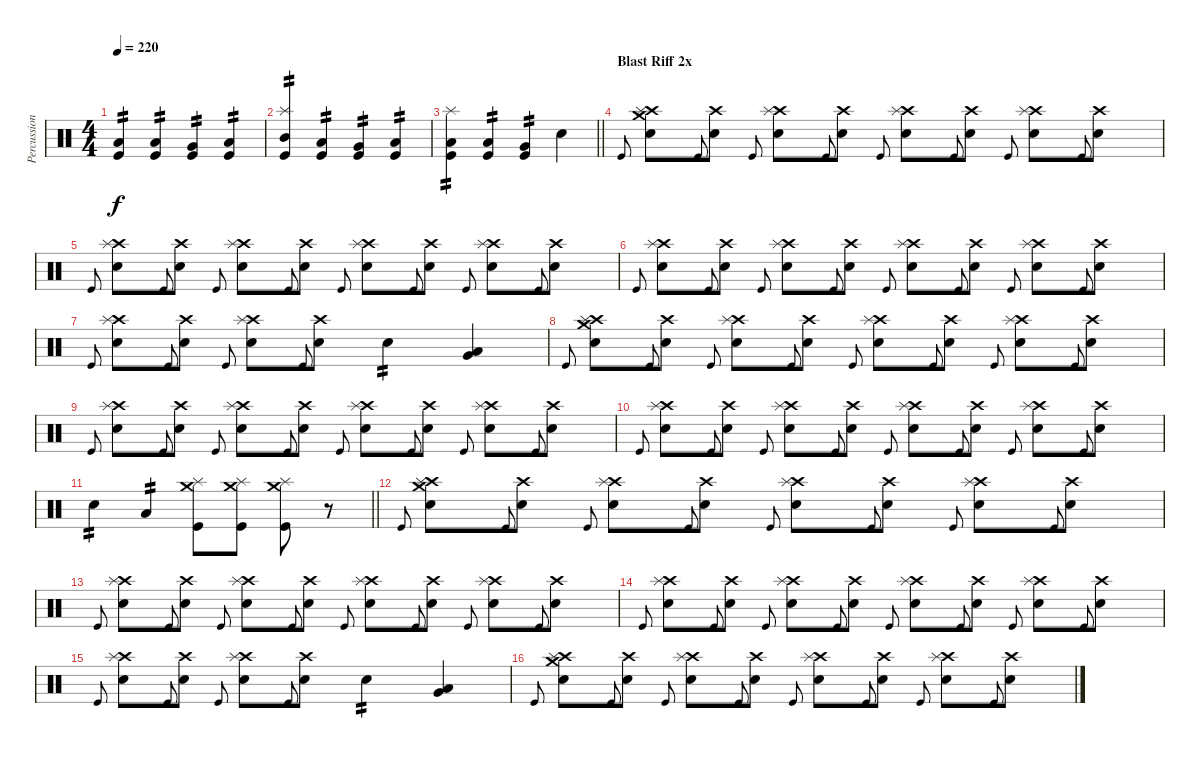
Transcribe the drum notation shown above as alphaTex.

\track ("Percussion" "Percussion") {instrument percussion}
\staff {score}
\articulation defaults
\ts (4 4)
\tempo 220
\clef neutral
\ks c
("Low Tom (hit)" "Kick (hit)").4{tp 2 dy f} ("Low Tom (hit)" "Kick (hit)").4{tp 2} ("Very Low Tom (hit)" "Kick (hit)").4{tp 2} ("Low Floor Tom (hit)" "Kick (hit)").4{tp 2} |
("Splash (hit)" "Mid Tom (hit)" "Kick (hit)").4{tp 2} ("Low Tom (hit)" "Kick (hit)").4{tp 2} ("Very Low Tom (hit)" "Kick (hit)").4{tp 2} ("Low Floor Tom (hit)" "Kick (hit)").4{tp 2} |
\barLineRight lightlight
("Splash (hit)" "Low Tom (hit)" "Kick (hit)").4{tp 2} ("Low Tom (hit)" "Kick (hit)").4{tp 2} ("Very Low Tom (hit)" "Kick (hit)").4{tp 2} "Snare (hit) 2".4 |
\section ("" "Blast Riff 2x")
"Kick (hit)".8{gr onbeat} ("Crash medium (hit)" "Crash high (hit)" "Splash (hit)" "Snare (hit) 2").8 "Kick (hit)".8{gr onbeat} ("Crash high (hit)" "Snare (hit) 2").8 "Kick (hit)".8{gr onbeat} ("Crash high (hit)" "Splash (hit)" "Snare (hit) 2").8 "Kick (hit)".8{gr onbeat} ("Crash high (hit)" "Snare (hit) 2").8 "Kick (hit)".8{gr onbeat} ("Crash high (hit)" "Splash (hit)" "Snare (hit) 2").8 "Kick (hit)".8{gr onbeat} ("Crash high (hit)" "Snare (hit) 2").8 "Kick (hit)".8{gr onbeat} ("Crash high (hit)" "Splash (hit)" "Snare (hit) 2").8 "Kick (hit)".8{gr onbeat} ("Crash high (hit)" "Snare (hit) 2").8 |
"Kick (hit)".8{gr onbeat} ("Crash high (hit)" "Splash (hit)" "Snare (hit) 2").8 "Kick (hit)".8{gr onbeat} ("Crash high (hit)" "Snare (hit) 2").8 "Kick (hit)".8{gr onbeat} ("Crash high (hit)" "Splash (hit)" "Snare (hit) 2").8 "Kick (hit)".8{gr onbeat} ("Crash high (hit)" "Snare (hit) 2").8 "Kick (hit)".8{gr onbeat} ("Crash high (hit)" "Splash (hit)" "Snare (hit) 2").8 "Kick (hit)".8{gr onbeat} ("Crash high (hit)" "Snare (hit) 2").8 "Kick (hit)".8{gr onbeat} ("Crash high (hit)" "Splash (hit)" "Snare (hit) 2").8 "Kick (hit)".8{gr onbeat} ("Crash high (hit)" "Snare (hit) 2").8 |
"Kick (hit)".8{gr onbeat} ("Crash high (hit)" "Splash (hit)" "Snare (hit) 2").8 "Kick (hit)".8{gr onbeat} ("Crash high (hit)" "Snare (hit) 2").8 "Kick (hit)".8{gr onbeat} ("Crash high (hit)" "Splash (hit)" "Snare (hit) 2").8 "Kick (hit)".8{gr onbeat} ("Crash high (hit)" "Snare (hit) 2").8 "Kick (hit)".8{gr onbeat} ("Crash high (hit)" "Splash (hit)" "Snare (hit) 2").8 "Kick (hit)".8{gr onbeat} ("Crash high (hit)" "Snare (hit) 2").8 "Kick (hit)".8{gr onbeat} ("Crash high (hit)" "Splash (hit)" "Snare (hit) 2").8 "Kick (hit)".8{gr onbeat} ("Crash high (hit)" "Snare (hit) 2").8 |
"Kick (hit)".8{gr onbeat} ("Crash high (hit)" "Splash (hit)" "Snare (hit) 2").8 "Kick (hit)".8{gr onbeat} ("Crash high (hit)" "Snare (hit) 2").8 "Kick (hit)".8{gr onbeat} ("Crash high (hit)" "Splash (hit)" "Snare (hit) 2").8 "Kick (hit)".8{gr onbeat} ("Crash high (hit)" "Snare (hit) 2").8 "Snare (hit) 2".4{tp 2} ("Very Low Tom (hit)" "Low Floor Tom (hit)").4 |
"Kick (hit)".8{gr onbeat} ("Crash medium (hit)" "Crash high (hit)" "Splash (hit)" "Snare (hit) 2").8 "Kick (hit)".8{gr onbeat} ("Crash high (hit)" "Snare (hit) 2").8 "Kick (hit)".8{gr onbeat} ("Crash high (hit)" "Splash (hit)" "Snare (hit) 2").8 "Kick (hit)".8{gr onbeat} ("Crash high (hit)" "Snare (hit) 2").8 "Kick (hit)".8{gr onbeat} ("Crash high (hit)" "Splash (hit)" "Snare (hit) 2").8 "Kick (hit)".8{gr onbeat} ("Crash high (hit)" "Snare (hit) 2").8 "Kick (hit)".8{gr onbeat} ("Crash high (hit)" "Splash (hit)" "Snare (hit) 2").8 "Kick (hit)".8{gr onbeat} ("Crash high (hit)" "Snare (hit) 2").8 |
"Kick (hit)".8{gr onbeat} ("Crash high (hit)" "Splash (hit)" "Snare (hit) 2").8 "Kick (hit)".8{gr onbeat} ("Crash high (hit)" "Snare (hit) 2").8 "Kick (hit)".8{gr onbeat} ("Crash high (hit)" "Splash (hit)" "Snare (hit) 2").8 "Kick (hit)".8{gr onbeat} ("Crash high (hit)" "Snare (hit) 2").8 "Kick (hit)".8{gr onbeat} ("Crash high (hit)" "Splash (hit)" "Snare (hit) 2").8 "Kick (hit)".8{gr onbeat} ("Crash high (hit)" "Snare (hit) 2").8 "Kick (hit)".8{gr onbeat} ("Crash high (hit)" "Splash (hit)" "Snare (hit) 2").8 "Kick (hit)".8{gr onbeat} ("Crash high (hit)" "Snare (hit) 2").8 |
"Kick (hit)".8{gr onbeat} ("Crash high (hit)" "Splash (hit)" "Snare (hit) 2").8 "Kick (hit)".8{gr onbeat} ("Crash high (hit)" "Snare (hit) 2").8 "Kick (hit)".8{gr onbeat} ("Crash high (hit)" "Splash (hit)" "Snare (hit) 2").8 "Kick (hit)".8{gr onbeat} ("Crash high (hit)" "Snare (hit) 2").8 "Kick (hit)".8{gr onbeat} ("Crash high (hit)" "Splash (hit)" "Snare (hit) 2").8 "Kick (hit)".8{gr onbeat} ("Crash high (hit)" "Snare (hit) 2").8 "Kick (hit)".8{gr onbeat} ("Crash high (hit)" "Splash (hit)" "Snare (hit) 2").8 "Kick (hit)".8{gr onbeat} ("Crash high (hit)" "Snare (hit) 2").8 |
\barLineRight lightlight "Snare (hit) 2".4{tp 2} "Low Tom (hit)".4{tp 2}
("Splash (hit)" "Crash medium (hit)" "Kick (hit)").8 ("Splash (hit)" "Crash medium (hit)" "Kick (hit)").8 ("Splash (hit)" "Crash medium (hit)" "Kick (hit)").8 r.8 |
"Kick (hit)".8{gr onbeat} ("Crash medium (hit)" "Crash high (hit)" "Splash (hit)" "Snare (hit) 2").8 "Kick (hit)".8{gr onbeat} ("Crash high (hit)" "Snare (hit) 2").8 "Kick (hit)".8{gr onbeat} ("Crash high (hit)" "Splash (hit)" "Snare (hit) 2").8 "Kick (hit)".8{gr onbeat} ("Crash high (hit)" "Snare (hit) 2").8 "Kick (hit)".8{gr onbeat} ("Crash high (hit)" "Splash (hit)" "Snare (hit) 2").8 "Kick (hit)".8{gr onbeat} ("Crash high (hit)" "Snare (hit) 2").8 "Kick (hit)".8{gr onbeat} ("Crash high (hit)" "Splash (hit)" "Snare (hit) 2").8 "Kick (hit)".8{gr onbeat} ("Crash high (hit)" "Snare (hit) 2").8 |
"Kick (hit)".8{gr onbeat} ("Crash high (hit)" "Splash (hit)" "Snare (hit) 2").8 "Kick (hit)".8{gr onbeat} ("Crash high (hit)" "Snare (hit) 2").8 "Kick (hit)".8{gr onbeat} ("Crash high (hit)" "Splash (hit)" "Snare (hit) 2").8 "Kick (hit)".8{gr onbeat} ("Crash high (hit)" "Snare (hit) 2").8 "Kick (hit)".8{gr onbeat} ("Crash high (hit)" "Splash (hit)" "Snare (hit) 2").8 "Kick (hit)".8{gr onbeat} ("Crash high (hit)" "Snare (hit) 2").8 "Kick (hit)".8{gr onbeat} ("Crash high (hit)" "Splash (hit)" "Snare (hit) 2").8 "Kick (hit)".8{gr onbeat} ("Crash high (hit)" "Snare (hit) 2").8 |
"Kick (hit)".8{gr onbeat} ("Crash high (hit)" "Splash (hit)" "Snare (hit) 2").8 "Kick (hit)".8{gr onbeat} ("Crash high (hit)" "Snare (hit) 2").8 "Kick (hit)".8{gr onbeat} ("Crash high (hit)" "Splash (hit)" "Snare (hit) 2").8 "Kick (hit)".8{gr onbeat} ("Crash high (hit)" "Snare (hit) 2").8 "Kick (hit)".8{gr onbeat} ("Crash high (hit)" "Splash (hit)" "Snare (hit) 2").8 "Kick (hit)".8{gr onbeat} ("Crash high (hit)" "Snare (hit) 2").8 "Kick (hit)".8{gr onbeat} ("Crash high (hit)" "Splash (hit)" "Snare (hit) 2").8 "Kick (hit)".8{gr onbeat} ("Crash high (hit)" "Snare (hit) 2").8 |
"Kick (hit)".8{gr onbeat} ("Crash high (hit)" "Splash (hit)" "Snare (hit) 2").8 "Kick (hit)".8{gr onbeat} ("Crash high (hit)" "Snare (hit) 2").8 "Kick (hit)".8{gr onbeat} ("Crash high (hit)" "Splash (hit)" "Snare (hit) 2").8 "Kick (hit)".8{gr onbeat} ("Crash high (hit)" "Snare (hit) 2").8 "Snare (hit) 2".4{tp 2} ("Very Low Tom (hit)" "Low Floor Tom (hit)").4 |
"Kick (hit)".8{gr onbeat} ("Crash medium (hit)" "Crash high (hit)" "Splash (hit)" "Snare (hit) 2").8 "Kick (hit)".8{gr onbeat} ("Crash high (hit)" "Snare (hit) 2").8 "Kick (hit)".8{gr onbeat} ("Crash high (hit)" "Splash (hit)" "Snare (hit) 2").8 "Kick (hit)".8{gr onbeat} ("Crash high (hit)" "Snare (hit) 2").8 "Kick (hit)".8{gr onbeat} ("Crash high (hit)" "Splash (hit)" "Snare (hit) 2").8 "Kick (hit)".8{gr onbeat} ("Crash high (hit)" "Snare (hit) 2").8 "Kick (hit)".8{gr onbeat} ("Crash high (hit)" "Splash (hit)" "Snare (hit) 2").8 "Kick (hit)".8{gr onbeat} ("Crash high (hit)" "Snare (hit) 2").8
